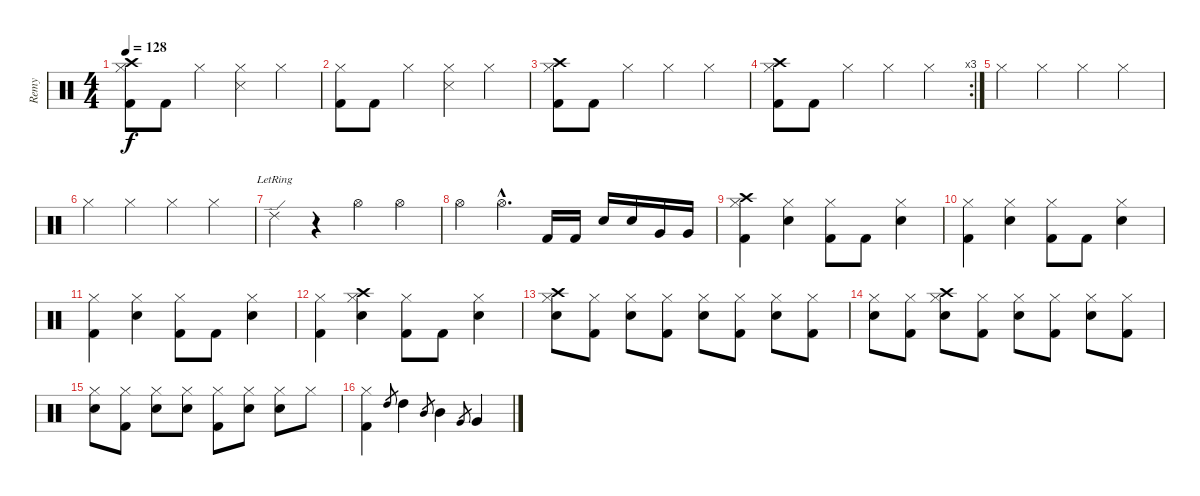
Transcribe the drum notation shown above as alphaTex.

\track ("Remy" "Remy") {instrument percussion}
\staff {score}
\articulation defaults
\ts (4 4)
\tempo 128
\clef neutral
\ks c
("Kick (hit) 2" "Hi-Hat (closed)" "Crash high (hit)").8{dy f} "Kick (hit) 2".8 "Hi-Hat (closed)".4 ("Snare (side stick) 3" "Hi-Hat (closed)").4 "Hi-Hat (closed)".4 |
("Kick (hit) 2" "Hi-Hat (closed)").8 "Kick (hit) 2".8 "Hi-Hat (closed)".4 ("Snare (side stick) 3" "Hi-Hat (closed)").4 "Hi-Hat (closed)".4 |
("Kick (hit) 2" "Hi-Hat (closed)" "Crash high (hit)").8 "Kick (hit) 2".8 "Hi-Hat (closed)".4 "Hi-Hat (closed)".4 "Hi-Hat (closed)".4 |
\rc 3
("Kick (hit) 2" "Hi-Hat (closed)" "Crash high (hit)").8 "Kick (hit) 2".8 "Hi-Hat (closed)".4 "Hi-Hat (closed)".4 "Hi-Hat (closed)".4 |
"Hi-Hat (closed)".4 "Hi-Hat (closed)".4 "Hi-Hat (closed)".4 "Hi-Hat (closed)".4 |
"Hi-Hat (closed)".4 "Hi-Hat (closed)".4 "Hi-Hat (closed)".4 "Hi-Hat (closed)".4 |
"Ride (edge) 2"{lr}.4 r.4 "Hi-Hat (open)".4 "Hi-Hat (open)".4 |
"Hi-Hat (open)".4 "Hi-Hat (open)"{hac}.4{d} "Kick (hit) 2".16 "Kick (hit) 2".16 "Snare (hit) 2".16 "Snare (hit) 2".16 "Very Low Tom (hit)".16 "Very Low Tom (hit)".16 |
("Crash high (hit)" "Hi-Hat (closed)" "Kick (hit) 2").4 ("Snare (hit) 2" "Hi-Hat (closed)").4 ("Hi-Hat (closed)" "Kick (hit) 2").8 "Kick (hit) 2".8 ("Snare (hit) 2" "Hi-Hat (closed)").4 |
("Hi-Hat (closed)" "Kick (hit) 2").4 ("Snare (hit) 2" "Hi-Hat (closed)").4 ("Hi-Hat (closed)" "Kick (hit) 2").8 "Kick (hit) 2".8 ("Snare (hit) 2" "Hi-Hat (closed)").4 |
("Hi-Hat (closed)" "Kick (hit) 2").4 ("Snare (hit) 2" "Hi-Hat (closed)").4 ("Hi-Hat (closed)" "Kick (hit) 2").8 "Kick (hit) 2".8 ("Snare (hit) 2" "Hi-Hat (closed)").4 |
("Hi-Hat (closed)" "Kick (hit) 2").4 ("Crash high (hit)" "Snare (hit) 2" "Hi-Hat (closed)").4 ("Hi-Hat (closed)" "Kick (hit) 2").8 "Kick (hit) 2".8 ("Snare (hit) 2" "Hi-Hat (closed)").4 |
("Crash high (hit)" "Snare (hit) 2" "Hi-Hat (closed)").8 ("Hi-Hat (closed)" "Kick (hit) 2").8 ("Snare (hit) 2" "Hi-Hat (closed)").8 ("Hi-Hat (closed)" "Kick (hit) 2").8 ("Snare (hit) 2" "Hi-Hat (closed)").8 ("Hi-Hat (closed)" "Kick (hit) 2").8 ("Snare (hit) 2" "Hi-Hat (closed)").8 ("Hi-Hat (closed)" "Kick (hit) 2").8 |
("Snare (hit) 2" "Hi-Hat (closed)").8 ("Hi-Hat (closed)" "Kick (hit) 2").8 ("Crash high (hit)" "Snare (hit) 2" "Hi-Hat (closed)").8 ("Hi-Hat (closed)" "Kick (hit) 2").8 ("Snare (hit) 2" "Hi-Hat (closed)").8 ("Hi-Hat (closed)" "Kick (hit) 2").8 ("Snare (hit) 2" "Hi-Hat (closed)").8 ("Hi-Hat (closed)" "Kick (hit) 2").8 |
("Snare (hit) 2" "Hi-Hat (closed)").8 ("Hi-Hat (closed)" "Kick (hit) 2").8 ("Snare (hit) 2" "Hi-Hat (closed)").8 ("Snare (hit) 2" "Hi-Hat (closed)").8 ("Hi-Hat (closed)" "Kick (hit) 2").8 ("Snare (hit) 2" "Hi-Hat (closed)").8 ("Snare (hit) 2" "Hi-Hat (closed)").8 "Hi-Hat (closed)".8 |
("Hi-Hat (closed)" "Kick (hit) 2").4 "High Tom (hit)".8{gr} "High Tom (hit)".4 "Mid Tom (hit)".8{gr} "Mid Tom (hit)".4 "Very Low Tom (hit)".8{gr} "Very Low Tom (hit)".4
